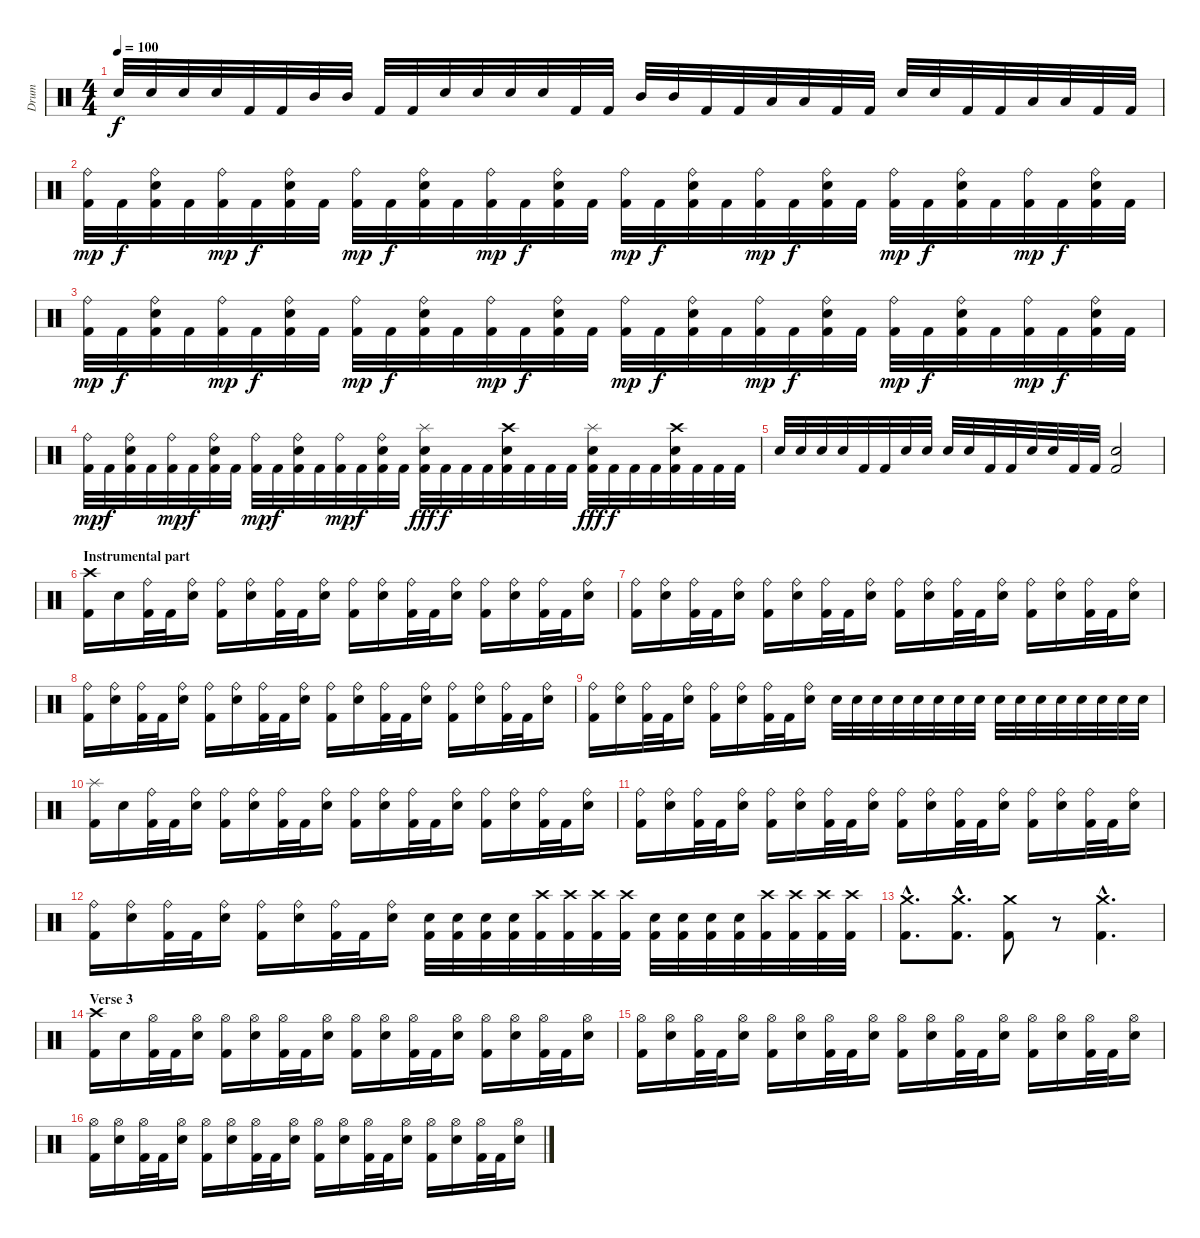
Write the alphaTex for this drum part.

\track ("Drum" "Drum") {instrument percussion}
\staff {score}
\articulation defaults
\ts (4 4)
\tempo 100
\clef neutral
\ks c "Snare (hit) 2".32{dy f} "Snare (hit) 2".32 "Snare (hit) 2".32 "Snare (hit) 2".32 "Kick (hit) 2".32 "Kick (hit) 2".32 "Mid Tom (hit)".32 "Mid Tom (hit)".32 "Kick (hit) 2".32 "Kick (hit) 2".32 "Snare (hit) 2".32 "Snare (hit) 2".32 "Snare (hit) 2".32 "Snare (hit) 2".32 "Kick (hit) 2".32 "Kick (hit) 2".32 "Mid Tom (hit)".32 "Mid Tom (hit)".32 "Kick (hit) 2".32 "Kick (hit) 2".32 "Low Tom (hit)".32 "Low Tom (hit)".32 "Kick (hit) 2".32 "Kick (hit) 2".32 "Snare (hit) 2".32 "Snare (hit) 2".32 "Kick (hit) 2".32 "Kick (hit) 2".32 "Low Tom (hit)".32 "Low Tom (hit)".32 "Kick (hit) 2".32 "Kick (hit) 2".32
|
("Ride (bell)" "Kick (hit) 2").32{dy mp} "Kick (hit) 2".32{dy f} ("Ride (bell)" "Snare (hit) 2" "Kick (hit) 2").32 "Kick (hit) 2".32 ("Ride (bell)" "Kick (hit) 2").32{dy mp} "Kick (hit) 2".32{dy f} ("Ride (bell)" "Snare (hit) 2" "Kick (hit) 2").32 "Kick (hit) 2".32 ("Ride (bell)" "Kick (hit) 2").32{dy mp} "Kick (hit) 2".32{dy f} ("Ride (bell)" "Snare (hit) 2" "Kick (hit) 2").32 "Kick (hit) 2".32 ("Ride (bell)" "Kick (hit) 2").32{dy mp} "Kick (hit) 2".32{dy f} ("Ride (bell)" "Snare (hit) 2" "Kick (hit) 2").32 "Kick (hit) 2".32 ("Ride (bell)" "Kick (hit) 2").32{dy mp} "Kick (hit) 2".32{dy f} ("Ride (bell)" "Snare (hit) 2" "Kick (hit) 2").32 "Kick (hit) 2".32 ("Ride (bell)" "Kick (hit) 2").32{dy mp} "Kick (hit) 2".32{dy f} ("Ride (bell)" "Snare (hit) 2" "Kick (hit) 2").32 "Kick (hit) 2".32 ("Ride (bell)" "Kick (hit) 2").32{dy mp} "Kick (hit) 2".32{dy f} ("Ride (bell)" "Snare (hit) 2" "Kick (hit) 2").32 "Kick (hit) 2".32 ("Ride (bell)" "Kick (hit) 2").32{dy mp} "Kick (hit) 2".32{dy f} ("Ride (bell)" "Snare (hit) 2" "Kick (hit) 2").32 "Kick (hit) 2".32 |
("Ride (bell)" "Kick (hit) 2").32{dy mp} "Kick (hit) 2".32{dy f} ("Ride (bell)" "Snare (hit) 2" "Kick (hit) 2").32 "Kick (hit) 2".32 ("Ride (bell)" "Kick (hit) 2").32{dy mp} "Kick (hit) 2".32{dy f} ("Ride (bell)" "Snare (hit) 2" "Kick (hit) 2").32 "Kick (hit) 2".32 ("Ride (bell)" "Kick (hit) 2").32{dy mp} "Kick (hit) 2".32{dy f} ("Ride (bell)" "Snare (hit) 2" "Kick (hit) 2").32 "Kick (hit) 2".32 ("Ride (bell)" "Kick (hit) 2").32{dy mp} "Kick (hit) 2".32{dy f} ("Ride (bell)" "Snare (hit) 2" "Kick (hit) 2").32 "Kick (hit) 2".32 ("Ride (bell)" "Kick (hit) 2").32{dy mp} "Kick (hit) 2".32{dy f} ("Ride (bell)" "Snare (hit) 2" "Kick (hit) 2").32 "Kick (hit) 2".32 ("Ride (bell)" "Kick (hit) 2").32{dy mp} "Kick (hit) 2".32{dy f} ("Ride (bell)" "Snare (hit) 2" "Kick (hit) 2").32 "Kick (hit) 2".32 ("Ride (bell)" "Kick (hit) 2").32{dy mp} "Kick (hit) 2".32{dy f} ("Ride (bell)" "Snare (hit) 2" "Kick (hit) 2").32 "Kick (hit) 2".32 ("Ride (bell)" "Kick (hit) 2").32{dy mp} "Kick (hit) 2".32{dy f} ("Ride (bell)" "Snare (hit) 2" "Kick (hit) 2").32 "Kick (hit) 2".32 |
("Ride (bell)" "Kick (hit) 2").32{dy mp} "Kick (hit) 2".32{dy f} ("Ride (bell)" "Snare (hit) 2" "Kick (hit) 2").32 "Kick (hit) 2".32 ("Ride (bell)" "Kick (hit) 2").32{dy mp} "Kick (hit) 2".32{dy f} ("Ride (bell)" "Snare (hit) 2" "Kick (hit) 2").32 "Kick (hit) 2".32 ("Ride (bell)" "Kick (hit) 2").32{dy mp} "Kick (hit) 2".32{dy f} ("Ride (bell)" "Snare (hit) 2" "Kick (hit) 2").32 "Kick (hit) 2".32 ("Ride (bell)" "Kick (hit) 2").32{dy mp} "Kick (hit) 2".32{dy f} ("Ride (bell)" "Snare (hit) 2" "Kick (hit) 2").32 "Kick (hit) 2".32 ("Splash (hit)" "Snare (hit) 2" "Kick (hit) 2").32{dy fff} "Kick (hit) 2".32{dy f} "Kick (hit) 2".32 "Kick (hit) 2".32 ("Crash high (hit)" "Snare (hit) 2" "Kick (hit) 2").32 "Kick (hit) 2".32 "Kick (hit) 2".32 "Kick (hit) 2".32 ("Splash (hit)" "Snare (hit) 2" "Kick (hit) 2").32{dy fff} "Kick (hit) 2".32{dy f} "Kick (hit) 2".32 "Kick (hit) 2".32 ("Crash high (hit)" "Snare (hit) 2" "Kick (hit) 2").32 "Kick (hit) 2".32 "Kick (hit) 2".32 "Kick (hit) 2".32 |
"Snare (hit) 2".32 "Snare (hit) 2".32 "Snare (hit) 2".32 "Snare (hit) 2".32 "Kick (hit) 2".32 "Kick (hit) 2".32 "Snare (hit) 2".32 "Snare (hit) 2".32 "Snare (hit) 2".32 "Snare (hit) 2".32 "Kick (hit) 2".32 "Kick (hit) 2".32 "Snare (hit) 2".32 "Snare (hit) 2".32 "Kick (hit) 2".32 "Kick (hit) 2".32 ("Snare (hit) 2" "Kick (hit) 2").2 |
\section ("" "Instrumental part")
("Crash high (hit)" "Kick (hit) 2").16 "Snare (hit) 2".16 ("Ride (bell)" "Kick (hit) 2").32 "Kick (hit) 2".32 ("Ride (bell)" "Snare (hit) 2").16 ("Ride (bell)" "Kick (hit) 2").16 ("Ride (bell)" "Snare (hit) 2").16 ("Ride (bell)" "Kick (hit) 2").32 "Kick (hit) 2".32 ("Ride (bell)" "Snare (hit) 2").16 ("Ride (bell)" "Kick (hit) 2").16 ("Ride (bell)" "Snare (hit) 2").16 ("Ride (bell)" "Kick (hit) 2").32 "Kick (hit) 2".32 ("Ride (bell)" "Snare (hit) 2").16 ("Ride (bell)" "Kick (hit) 2").16 ("Ride (bell)" "Snare (hit) 2").16 ("Ride (bell)" "Kick (hit) 2").32 "Kick (hit) 2".32 ("Ride (bell)" "Snare (hit) 2").16 |
("Ride (bell)" "Kick (hit) 2").16 ("Ride (bell)" "Snare (hit) 2").16 ("Ride (bell)" "Kick (hit) 2").32 "Kick (hit) 2".32 ("Ride (bell)" "Snare (hit) 2").16 ("Ride (bell)" "Kick (hit) 2").16 ("Ride (bell)" "Snare (hit) 2").16 ("Ride (bell)" "Kick (hit) 2").32 "Kick (hit) 2".32 ("Ride (bell)" "Snare (hit) 2").16 ("Ride (bell)" "Kick (hit) 2").16 ("Ride (bell)" "Snare (hit) 2").16 ("Ride (bell)" "Kick (hit) 2").32 "Kick (hit) 2".32 ("Ride (bell)" "Snare (hit) 2").16 ("Ride (bell)" "Kick (hit) 2").16 ("Ride (bell)" "Snare (hit) 2").16 ("Ride (bell)" "Kick (hit) 2").32 "Kick (hit) 2".32 ("Ride (bell)" "Snare (hit) 2").16 |
("Ride (bell)" "Kick (hit) 2").16 ("Ride (bell)" "Snare (hit) 2").16 ("Ride (bell)" "Kick (hit) 2").32 "Kick (hit) 2".32 ("Ride (bell)" "Snare (hit) 2").16 ("Ride (bell)" "Kick (hit) 2").16 ("Ride (bell)" "Snare (hit) 2").16 ("Ride (bell)" "Kick (hit) 2").32 "Kick (hit) 2".32 ("Ride (bell)" "Snare (hit) 2").16 ("Ride (bell)" "Kick (hit) 2").16 ("Ride (bell)" "Snare (hit) 2").16 ("Ride (bell)" "Kick (hit) 2").32 "Kick (hit) 2".32 ("Ride (bell)" "Snare (hit) 2").16 ("Ride (bell)" "Kick (hit) 2").16 ("Ride (bell)" "Snare (hit) 2").16 ("Ride (bell)" "Kick (hit) 2").32 "Kick (hit) 2".32 ("Ride (bell)" "Snare (hit) 2").16 |
("Ride (bell)" "Kick (hit) 2").16 ("Ride (bell)" "Snare (hit) 2").16 ("Ride (bell)" "Kick (hit) 2").32 "Kick (hit) 2".32 ("Ride (bell)" "Snare (hit) 2").16 ("Ride (bell)" "Kick (hit) 2").16 ("Ride (bell)" "Snare (hit) 2").16 ("Ride (bell)" "Kick (hit) 2").32 "Kick (hit) 2".32 ("Ride (bell)" "Snare (hit) 2").16 "Snare (hit) 2".32 "Snare (hit) 2".32 "Snare (hit) 2".32 "Snare (hit) 2".32 "Snare (hit) 2".32 "Snare (hit) 2".32 "Snare (hit) 2".32 "Snare (hit) 2".32 "Snare (hit) 2".32 "Snare (hit) 2".32 "Snare (hit) 2".32 "Snare (hit) 2".32 "Snare (hit) 2".32 "Snare (hit) 2".32 "Snare (hit) 2".32 "Snare (hit) 2".32 |
("Splash (hit)" "Kick (hit) 2").16 "Snare (hit) 2".16 ("Ride (bell)" "Kick (hit) 2").32 "Kick (hit) 2".32 ("Ride (bell)" "Snare (hit) 2").16 ("Ride (bell)" "Kick (hit) 2").16 ("Ride (bell)" "Snare (hit) 2").16 ("Ride (bell)" "Kick (hit) 2").32 "Kick (hit) 2".32 ("Ride (bell)" "Snare (hit) 2").16 ("Ride (bell)" "Kick (hit) 2").16 ("Ride (bell)" "Snare (hit) 2").16 ("Ride (bell)" "Kick (hit) 2").32 "Kick (hit) 2".32 ("Ride (bell)" "Snare (hit) 2").16 ("Ride (bell)" "Kick (hit) 2").16 ("Ride (bell)" "Snare (hit) 2").16 ("Ride (bell)" "Kick (hit) 2").32 "Kick (hit) 2".32 ("Ride (bell)" "Snare (hit) 2").16 |
("Ride (bell)" "Kick (hit) 2").16 ("Ride (bell)" "Snare (hit) 2").16 ("Ride (bell)" "Kick (hit) 2").32 "Kick (hit) 2".32 ("Ride (bell)" "Snare (hit) 2").16 ("Ride (bell)" "Kick (hit) 2").16 ("Ride (bell)" "Snare (hit) 2").16 ("Ride (bell)" "Kick (hit) 2").32 "Kick (hit) 2".32 ("Ride (bell)" "Snare (hit) 2").16 ("Ride (bell)" "Kick (hit) 2").16 ("Ride (bell)" "Snare (hit) 2").16 ("Ride (bell)" "Kick (hit) 2").32 "Kick (hit) 2".32 ("Ride (bell)" "Snare (hit) 2").16 ("Ride (bell)" "Kick (hit) 2").16 ("Ride (bell)" "Snare (hit) 2").16 ("Ride (bell)" "Kick (hit) 2").32 "Kick (hit) 2".32 ("Ride (bell)" "Snare (hit) 2").16 |
("Ride (bell)" "Kick (hit) 2").16 ("Ride (bell)" "Snare (hit) 2").16 ("Ride (bell)" "Kick (hit) 2").32 "Kick (hit) 2".32 ("Ride (bell)" "Snare (hit) 2").16 ("Ride (bell)" "Kick (hit) 2").16 ("Ride (bell)" "Snare (hit) 2").16 ("Ride (bell)" "Kick (hit) 2").32 "Kick (hit) 2".32 ("Ride (bell)" "Snare (hit) 2").16 ("Snare (hit) 2" "Kick (hit) 2").32 ("Snare (hit) 2" "Kick (hit) 2").32 ("Snare (hit) 2" "Kick (hit) 2").32 ("Snare (hit) 2" "Kick (hit) 2").32 ("Crash high (hit)" "Kick (hit) 2").32 ("Crash high (hit)" "Kick (hit) 2").32 ("Crash high (hit)" "Kick (hit) 2").32 ("Crash high (hit)" "Kick (hit) 2").32 ("Snare (hit) 2" "Kick (hit) 2").32 ("Snare (hit) 2" "Kick (hit) 2").32 ("Snare (hit) 2" "Kick (hit) 2").32 ("Snare (hit) 2" "Kick (hit) 2").32 ("Crash high (hit)" "Kick (hit) 2").32 ("Crash high (hit)" "Kick (hit) 2").32 ("Crash high (hit)" "Kick (hit) 2").32 ("Crash high (hit)" "Kick (hit) 2").32 |
("Crash medium (hit)"{hac} "Kick (hit) 2"{hac}).8{d} ("Crash medium (hit)"{hac} "Kick (hit) 2"{hac}).8{d} ("Crash medium (hit)" "Kick (hit) 2").8 r.8 ("Crash medium (hit)"{hac} "Kick (hit) 2"{hac}).4{d} |
\section ("" "Verse 3")
("Crash high (hit)" "Kick (hit) 2").16 "Snare (hit) 2".16 ("Hi-Hat (open)" "Kick (hit) 2").32 "Kick (hit) 2".32 ("Hi-Hat (open)" "Snare (hit) 2").16 ("Hi-Hat (open)" "Kick (hit) 2").16 ("Hi-Hat (open)" "Snare (hit) 2").16 ("Hi-Hat (open)" "Kick (hit) 2").32 "Kick (hit) 2".32 ("Hi-Hat (open)" "Snare (hit) 2").16 ("Hi-Hat (open)" "Kick (hit) 2").16 ("Hi-Hat (open)" "Snare (hit) 2").16 ("Hi-Hat (open)" "Kick (hit) 2").32 "Kick (hit) 2".32 ("Hi-Hat (open)" "Snare (hit) 2").16 ("Hi-Hat (open)" "Kick (hit) 2").16 ("Hi-Hat (open)" "Snare (hit) 2").16 ("Hi-Hat (open)" "Kick (hit) 2").32 "Kick (hit) 2".32 ("Hi-Hat (open)" "Snare (hit) 2").16 |
("Hi-Hat (open)" "Kick (hit) 2").16 ("Hi-Hat (open)" "Snare (hit) 2").16 ("Hi-Hat (open)" "Kick (hit) 2").32 "Kick (hit) 2".32 ("Hi-Hat (open)" "Snare (hit) 2").16 ("Hi-Hat (open)" "Kick (hit) 2").16 ("Hi-Hat (open)" "Snare (hit) 2").16 ("Hi-Hat (open)" "Kick (hit) 2").32 "Kick (hit) 2".32 ("Hi-Hat (open)" "Snare (hit) 2").16 ("Hi-Hat (open)" "Kick (hit) 2").16 ("Hi-Hat (open)" "Snare (hit) 2").16 ("Hi-Hat (open)" "Kick (hit) 2").32 "Kick (hit) 2".32 ("Hi-Hat (open)" "Snare (hit) 2").16 ("Hi-Hat (open)" "Kick (hit) 2").16 ("Hi-Hat (open)" "Snare (hit) 2").16 ("Hi-Hat (open)" "Kick (hit) 2").32 "Kick (hit) 2".32 ("Hi-Hat (open)" "Snare (hit) 2").16 |
("Hi-Hat (open)" "Kick (hit) 2").16 ("Hi-Hat (open)" "Snare (hit) 2").16 ("Hi-Hat (open)" "Kick (hit) 2").32 "Kick (hit) 2".32 ("Hi-Hat (open)" "Snare (hit) 2").16 ("Hi-Hat (open)" "Kick (hit) 2").16 ("Hi-Hat (open)" "Snare (hit) 2").16 ("Hi-Hat (open)" "Kick (hit) 2").32 "Kick (hit) 2".32 ("Hi-Hat (open)" "Snare (hit) 2").16 ("Hi-Hat (open)" "Kick (hit) 2").16 ("Hi-Hat (open)" "Snare (hit) 2").16 ("Hi-Hat (open)" "Kick (hit) 2").32 "Kick (hit) 2".32 ("Hi-Hat (open)" "Snare (hit) 2").16 ("Hi-Hat (open)" "Kick (hit) 2").16 ("Hi-Hat (open)" "Snare (hit) 2").16 ("Hi-Hat (open)" "Kick (hit) 2").32 "Kick (hit) 2".32 ("Hi-Hat (open)" "Snare (hit) 2").16
